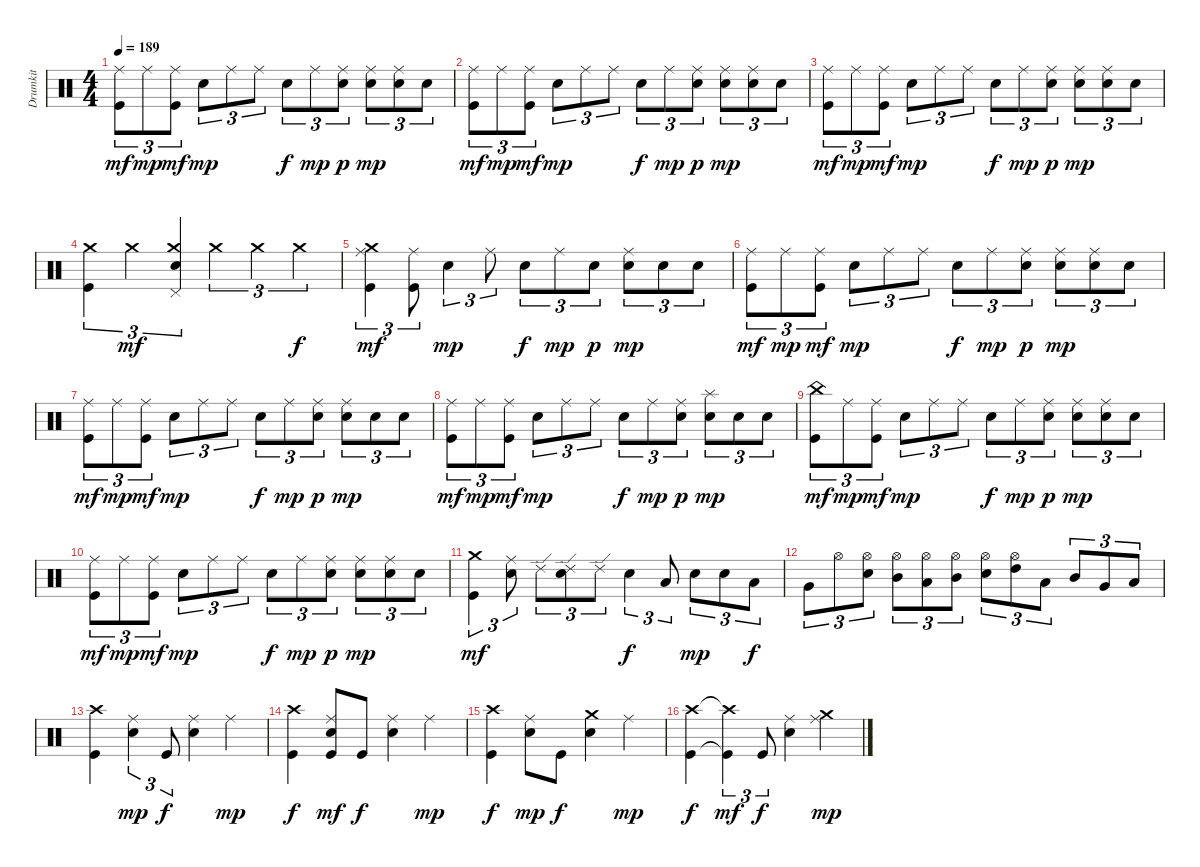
\track ("Drumkit" "Drumkit") {instrument percussion}
\staff {score}
\articulation defaults
\ts (4 4)
\tempo 189
\clef neutral
\ks c
("Kick (hit)" "Ride (middle)").8{tu (3 2) dy mf} "Ride (middle)".8{tu (3 2) dy mp} ("Kick (hit)" "Ride (middle)").8{tu (3 2) dy mf} "Snare (hit) 2".8{tu (3 2) dy mp} "Ride (middle)".8{tu (3 2)} "Ride (middle)".8{tu (3 2)} "Snare (hit) 2".8{tu (3 2) dy f} "Ride (middle)".8{tu (3 2) dy mp} ("Snare (hit) 2" "Ride (middle)").8{tu (3 2) dy p} ("Snare (hit) 2" "Ride (middle)").8{tu (3 2) dy mp} ("Snare (hit) 2" "Ride (middle)").8{tu (3 2)} "Snare (hit) 2".8{tu (3 2)} |
("Kick (hit)" "Ride (middle)").8{tu (3 2) dy mf} "Ride (middle)".8{tu (3 2) dy mp} ("Kick (hit)" "Ride (middle)").8{tu (3 2) dy mf} "Snare (hit) 2".8{tu (3 2) dy mp} "Ride (middle)".8{tu (3 2)} "Ride (middle)".8{tu (3 2)} "Snare (hit) 2".8{tu (3 2) dy f} "Ride (middle)".8{tu (3 2) dy mp} ("Snare (hit) 2" "Ride (middle)").8{tu (3 2) dy p} ("Snare (hit) 2" "Ride (middle)").8{tu (3 2) dy mp} ("Snare (hit) 2" "Ride (middle)").8{tu (3 2)} "Snare (hit) 2".8{tu (3 2)} |
("Kick (hit)" "Ride (middle)").8{tu (3 2) dy mf} "Ride (middle)".8{tu (3 2) dy mp} ("Kick (hit)" "Ride (middle)").8{tu (3 2) dy mf} "Snare (hit) 2".8{tu (3 2) dy mp} "Ride (middle)".8{tu (3 2)} "Ride (middle)".8{tu (3 2)} "Snare (hit) 2".8{tu (3 2) dy f} "Ride (middle)".8{tu (3 2) dy mp} ("Snare (hit) 2" "Ride (middle)").8{tu (3 2) dy p} ("Snare (hit) 2" "Ride (middle)").8{tu (3 2) dy mp} ("Snare (hit) 2" "Ride (middle)").8{tu (3 2)} "Snare (hit) 2".8{tu (3 2)} |
("Kick (hit)" "Crash medium (hit)").4{tu (3 2)} "Crash medium (hit)".4{tu (3 2) dy mf} ("Snare (hit) 2" "Pedal Hi-Hat (hit)" "Crash medium (hit)").4{tu (3 2)} "Crash medium (hit)".4{tu (3 2)} "Crash medium (hit)".4{tu (3 2)} "Crash medium (hit)".4{tu (3 2) dy f} |
("Kick (hit)" "Ride (middle)" "Crash medium (hit)").4{tu (3 2) dy mf} ("Kick (hit)" "Ride (middle)").8{tu (3 2)} "Snare (hit) 2".4{tu (3 2) dy mp} "Ride (middle)".8{tu (3 2)} "Snare (hit) 2".8{tu (3 2) dy f} "Ride (middle)".8{tu (3 2) dy mp} "Snare (hit) 2".8{tu (3 2) dy p} ("Snare (hit) 2" "Ride (middle)").8{tu (3 2) dy mp} "Snare (hit) 2".8{tu (3 2)} "Snare (hit) 2".8{tu (3 2)} |
("Kick (hit)" "Ride (middle)").8{tu (3 2) dy mf} "Ride (middle)".8{tu (3 2) dy mp} ("Kick (hit)" "Ride (middle)").8{tu (3 2) dy mf} "Snare (hit) 2".8{tu (3 2) dy mp} "Ride (middle)".8{tu (3 2)} "Ride (middle)".8{tu (3 2)} "Snare (hit) 2".8{tu (3 2) dy f} "Ride (middle)".8{tu (3 2) dy mp} ("Snare (hit) 2" "Ride (middle)").8{tu (3 2) dy p} ("Snare (hit) 2" "Ride (middle)").8{tu (3 2) dy mp} ("Snare (hit) 2" "Ride (middle)").8{tu (3 2)} "Snare (hit) 2".8{tu (3 2)} |
("Kick (hit)" "Ride (middle)").8{tu (3 2) dy mf} "Ride (middle)".8{tu (3 2) dy mp} ("Kick (hit)" "Ride (middle)").8{tu (3 2) dy mf} "Snare (hit) 2".8{tu (3 2) dy mp} "Ride (middle)".8{tu (3 2)} "Ride (middle)".8{tu (3 2)} "Snare (hit) 2".8{tu (3 2) dy f} "Ride (middle)".8{tu (3 2) dy mp} ("Snare (hit) 2" "Ride (middle)").8{tu (3 2) dy p} ("Snare (hit) 2" "Ride (middle)").8{tu (3 2) dy mp} "Snare (hit) 2".8{tu (3 2)} "Snare (hit) 2".8{tu (3 2)} |
("Kick (hit)" "Ride (middle)").8{tu (3 2) dy mf} "Ride (middle)".8{tu (3 2) dy mp} ("Kick (hit)" "Ride (middle)").8{tu (3 2) dy mf} "Snare (hit) 2".8{tu (3 2) dy mp} "Ride (middle)".8{tu (3 2)} "Ride (middle)".8{tu (3 2)} "Snare (hit) 2".8{tu (3 2) dy f} "Ride (middle)".8{tu (3 2) dy mp} ("Snare (hit) 2" "Ride (middle)").8{tu (3 2) dy p} ("Snare (hit) 2" "Splash (hit)").8{tu (3 2) dy mp} "Snare (hit) 2".8{tu (3 2)} "Snare (hit) 2".8{tu (3 2)} |
("Kick (hit)" "China (hit)").8{tu (3 2) dy mf} "Ride (middle)".8{tu (3 2) dy mp} ("Kick (hit)" "Ride (middle)").8{tu (3 2) dy mf} "Snare (hit) 2".8{tu (3 2) dy mp} "Ride (middle)".8{tu (3 2)} "Ride (middle)".8{tu (3 2)} "Snare (hit) 2".8{tu (3 2) dy f} "Ride (middle)".8{tu (3 2) dy mp} ("Snare (hit) 2" "Ride (middle)").8{tu (3 2) dy p} ("Snare (hit) 2" "Ride (middle)").8{tu (3 2) dy mp} ("Snare (hit) 2" "Ride (middle)").8{tu (3 2)} "Snare (hit) 2".8{tu (3 2)} |
("Kick (hit)" "Ride (middle)").8{tu (3 2) dy mf} "Ride (middle)".8{tu (3 2) dy mp} ("Kick (hit)" "Ride (middle)").8{tu (3 2) dy mf} "Snare (hit) 2".8{tu (3 2) dy mp} "Ride (middle)".8{tu (3 2)} "Ride (middle)".8{tu (3 2)} "Snare (hit) 2".8{tu (3 2) dy f} "Ride (middle)".8{tu (3 2) dy mp} ("Snare (hit) 2" "Ride (middle)").8{tu (3 2) dy p} ("Snare (hit) 2" "Ride (middle)").8{tu (3 2) dy mp} ("Snare (hit) 2" "Ride (middle)").8{tu (3 2)} "Snare (hit) 2".8{tu (3 2)} |
("Kick (hit)" "Crash medium (hit)").4{tu (3 2) dy mf} ("Snare (hit) 2" "Ride (middle)").8{tu (3 2)} "Ride (edge) 2".8{tu (3 2)} ("Snare (hit) 2" "Ride (edge) 2").8{tu (3 2)} "Ride (edge) 2".8{tu (3 2)} "Snare (hit) 2".4{tu (3 2) dy f} "Low Tom (hit)".8{tu (3 2)} "Snare (hit) 2".8{tu (3 2) dy mp} "Snare (hit) 2".8{tu (3 2)} "Low Tom (hit)".8{tu (3 2) dy f} |
"Very Low Tom (hit)".8{tu (3 2)} "Hi-Hat (open)".8{tu (3 2)} ("Snare (hit) 2" "Hi-Hat (open)").8{tu (3 2)} ("Mid Tom (hit)" "Hi-Hat (open)").8{tu (3 2)} ("Low Tom (hit)" "Hi-Hat (open)").8{tu (3 2)} ("Mid Tom (hit)" "Hi-Hat (open)").8{tu (3 2)} ("Snare (hit) 2" "Hi-Hat (open)").8{tu (3 2)} ("High Tom (hit)" "Hi-Hat (open)").8{tu (3 2)} "Low Tom (hit)".8{tu (3 2)} "Mid Tom (hit)".8{tu (3 2)} "Very Low Tom (hit)".8{tu (3 2)} "Low Floor Tom (hit)".8{tu (3 2)} |
("Kick (hit)" "Crash high (hit)").4 ("Snare (hit) 2" "Ride (middle)").4{tu (3 2) dy mp} "Kick (hit)".8{tu (3 2) dy f} ("Snare (hit) 2" "Ride (middle)").4 "Ride (middle)".4{dy mp} |
("Kick (hit)" "Crash high (hit)").4{dy f} ("Snare (hit) 2" "Ride (middle)" "Kick (hit)").8{dy mf} "Kick (hit)".8{dy f} ("Snare (hit) 2" "Ride (middle)").4 "Ride (middle)".4{dy mp} |
("Kick (hit)" "Crash high (hit)").4{dy f} ("Snare (hit) 2" "Ride (middle)").8{dy mp} "Kick (hit)".8{dy f} ("Snare (hit) 2" "Crash medium (hit)").4 "Ride (middle)".4{dy mp} |
("Kick (hit)" "Crash high (hit)").4{dy f} ("Kick (hit)"{t} "Crash high (hit)"{t}).4{tu (3 2) dy mf} "Kick (hit)".8{tu (3 2) dy f} ("Snare (hit) 2" "Ride (middle)").4 ("Crash medium (hit)" "Ride (middle)").4{dy mp}
